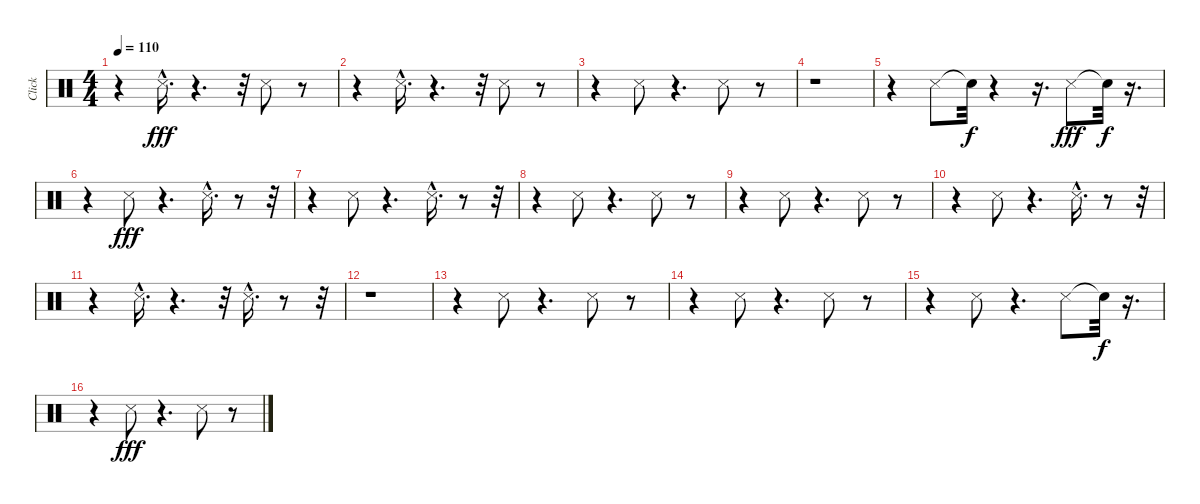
\track ("Click" "Click") {instrument percussion}
\staff {score}
\articulation defaults
\ts (4 4)
\tempo 110
\clef neutral
\ks c
r.4{dy fff} "Snare (side stick) 3"{hac}.16{d} r.4{d} r.32 "Snare (side stick) 3".8 r.8 |
r.4 "Snare (side stick) 3"{hac}.16{d} r.4{d} r.32 "Snare (side stick) 3".8 r.8 |
r.4 "Snare (side stick) 3".8 r.4{d} "Snare (side stick) 3".8 r.8 |
r.1 |
r.4 "Snare (side stick) 3".8 "Snare (hit)"{t}.32{dy f} r.4 r.16{d} "Snare (side stick) 3".8{dy fff} "Snare (hit)"{t}.32{dy f} r.16{d} |
r.4 "Snare (side stick) 3".8{dy fff} r.4{d} "Snare (side stick) 3"{hac}.16{d} r.8 r.32 |
r.4 "Snare (side stick) 3".8 r.4{d} "Snare (side stick) 3"{hac}.16{d} r.8 r.32 |
r.4 "Snare (side stick) 3".8 r.4{d} "Snare (side stick) 3".8 r.8 |
r.4 "Snare (side stick) 3".8 r.4{d} "Snare (side stick) 3".8 r.8 |
r.4 "Snare (side stick) 3".8 r.4{d} "Snare (side stick) 3"{hac}.16{d} r.8 r.32 |
r.4 "Snare (side stick) 3"{hac}.16{d} r.4{d} r.32 "Snare (side stick) 3"{hac}.16{d} r.8 r.32 |
r.1 |
r.4 "Snare (side stick) 3".8 r.4{d} "Snare (side stick) 3".8 r.8 |
r.4 "Snare (side stick) 3".8 r.4{d} "Snare (side stick) 3".8 r.8 |
r.4 "Snare (side stick) 3".8 r.4{d} "Snare (side stick) 3".8 "Snare (hit)"{t}.32{dy f} r.16{d} |
r.4 "Snare (side stick) 3".8{dy fff} r.4{d} "Snare (side stick) 3".8 r.8
